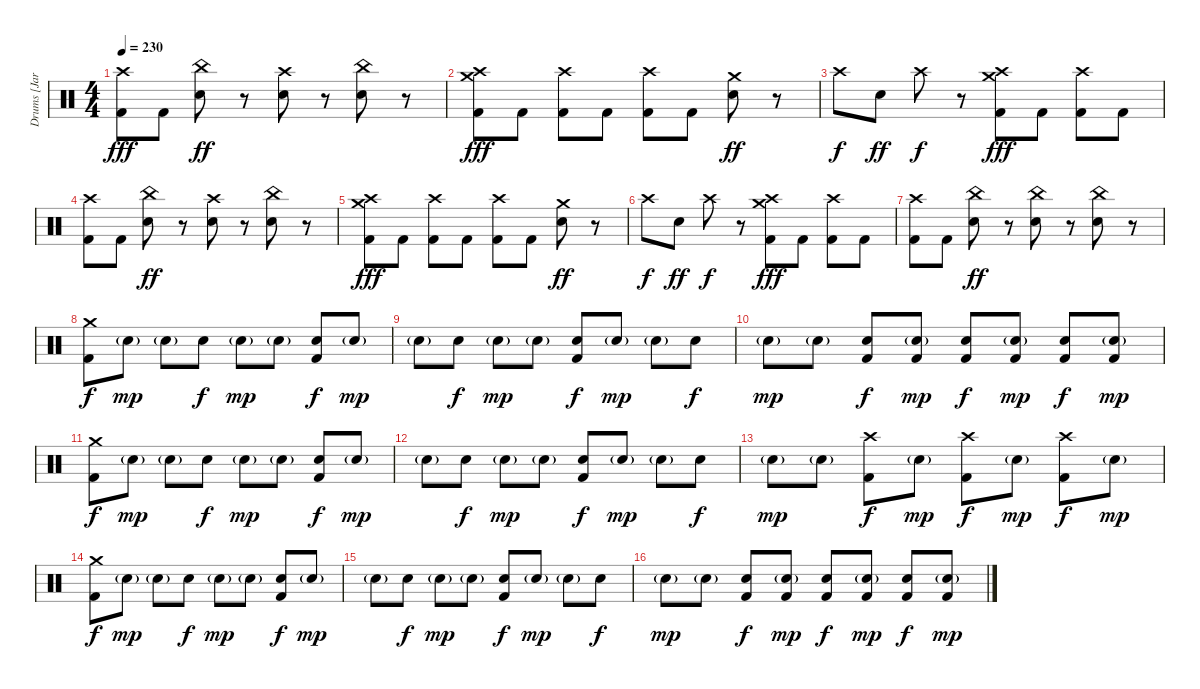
\track ("Drums [Jared]" "Drums [Jar") {instrument percussion}
\staff {score}
\articulation defaults
\ts (4 4)
\tempo 230
\clef neutral
\ks c
("Crash high (hit)" "Kick (hit) 2").8{dy fff} "Kick (hit) 2".8 ("China (hit)" "Electric Snare (hit)").8{dy ff} r.8 ("Crash high (hit)" "Electric Snare (hit)").8 r.8 ("China (hit)" "Electric Snare (hit)").8 r.8 |
("Crash medium (hit)" "Crash high (hit)" "Kick (hit) 2").8{dy fff} "Kick (hit) 2".8 ("Crash high (hit)" "Kick (hit) 2").8 "Kick (hit) 2".8 ("Crash high (hit)" "Kick (hit) 2").8 "Kick (hit) 2".8 ("Crash medium (hit)" "Electric Snare (hit)").8{dy ff} r.8 |
"Crash high (hit)".8{dy f} "Electric Snare (hit)".8{dy ff} "Crash high (hit)".8{dy f} r.8 ("Crash medium (hit)" "Crash high (hit)" "Kick (hit) 2").8{dy fff} "Kick (hit) 2".8 ("Crash high (hit)" "Kick (hit) 2").8 "Kick (hit) 2".8 |
("Crash high (hit)" "Kick (hit) 2").8 "Kick (hit) 2".8 ("China (hit)" "Electric Snare (hit)").8{dy ff} r.8 ("Crash high (hit)" "Electric Snare (hit)").8 r.8 ("China (hit)" "Electric Snare (hit)").8 r.8 |
("Crash medium (hit)" "Crash high (hit)" "Kick (hit) 2").8{dy fff} "Kick (hit) 2".8 ("Crash high (hit)" "Kick (hit) 2").8 "Kick (hit) 2".8 ("Crash high (hit)" "Kick (hit) 2").8 "Kick (hit) 2".8 ("Crash medium (hit)" "Electric Snare (hit)").8{dy ff} r.8 |
"Crash high (hit)".8{dy f} "Electric Snare (hit)".8{dy ff} "Crash high (hit)".8{dy f} r.8 ("Crash medium (hit)" "Crash high (hit)" "Kick (hit) 2").8{dy fff} "Kick (hit) 2".8 ("Crash high (hit)" "Kick (hit) 2").8 "Kick (hit) 2".8 |
("Crash high (hit)" "Kick (hit) 2").8 "Kick (hit) 2".8 ("China (hit)" "Electric Snare (hit)").8{dy ff} r.8 ("China (hit)" "Electric Snare (hit)").8 r.8 ("China (hit)" "Electric Snare (hit)").8 r.8 |
("Crash medium (hit)" "Kick (hit) 2").8{dy f} "Electric Snare (hit)"{g}.8{dy mp} "Electric Snare (hit)"{g}.8 "Electric Snare (hit)".8{dy f} "Electric Snare (hit)"{g}.8{dy mp} "Electric Snare (hit)"{g}.8 ("Electric Snare (hit)" "Kick (hit) 2").8{dy f} "Electric Snare (hit)"{g}.8{dy mp} |
"Electric Snare (hit)"{g}.8 "Electric Snare (hit)".8{dy f} "Electric Snare (hit)"{g}.8{dy mp} "Electric Snare (hit)"{g}.8 ("Electric Snare (hit)" "Kick (hit) 2").8{dy f} "Electric Snare (hit)"{g}.8{dy mp} "Electric Snare (hit)"{g}.8 "Electric Snare (hit)".8{dy f} |
"Electric Snare (hit)"{g}.8{dy mp} "Electric Snare (hit)"{g}.8 ("Electric Snare (hit)" "Kick (hit) 2").8{dy f} ("Electric Snare (hit)"{g} "Kick (hit) 2").8{dy mp} ("Electric Snare (hit)" "Kick (hit) 2").8{dy f} ("Electric Snare (hit)"{g} "Kick (hit) 2").8{dy mp} ("Electric Snare (hit)" "Kick (hit) 2").8{dy f} ("Electric Snare (hit)"{g} "Kick (hit) 2").8{dy mp} |
("Crash medium (hit)" "Kick (hit) 2").8{dy f} "Electric Snare (hit)"{g}.8{dy mp} "Electric Snare (hit)"{g}.8 "Electric Snare (hit)".8{dy f} "Electric Snare (hit)"{g}.8{dy mp} "Electric Snare (hit)"{g}.8 ("Electric Snare (hit)" "Kick (hit) 2").8{dy f} "Electric Snare (hit)"{g}.8{dy mp} |
"Electric Snare (hit)"{g}.8 "Electric Snare (hit)".8{dy f} "Electric Snare (hit)"{g}.8{dy mp} "Electric Snare (hit)"{g}.8 ("Electric Snare (hit)" "Kick (hit) 2").8{dy f} "Electric Snare (hit)"{g}.8{dy mp} "Electric Snare (hit)"{g}.8 "Electric Snare (hit)".8{dy f} |
"Electric Snare (hit)"{g}.8{dy mp} "Electric Snare (hit)"{g}.8 ("Crash high (hit)" "Kick (hit) 2").8{dy f} "Electric Snare (hit)"{g}.8{dy mp} ("Crash high (hit)" "Kick (hit) 2").8{dy f} "Electric Snare (hit)"{g}.8{dy mp} ("Crash high (hit)" "Kick (hit) 2").8{dy f} "Electric Snare (hit)"{g}.8{dy mp} |
("Crash medium (hit)" "Kick (hit) 2").8{dy f} "Electric Snare (hit)"{g}.8{dy mp} "Electric Snare (hit)"{g}.8 "Electric Snare (hit)".8{dy f} "Electric Snare (hit)"{g}.8{dy mp} "Electric Snare (hit)"{g}.8 ("Electric Snare (hit)" "Kick (hit) 2").8{dy f} "Electric Snare (hit)"{g}.8{dy mp} |
"Electric Snare (hit)"{g}.8 "Electric Snare (hit)".8{dy f} "Electric Snare (hit)"{g}.8{dy mp} "Electric Snare (hit)"{g}.8 ("Electric Snare (hit)" "Kick (hit) 2").8{dy f} "Electric Snare (hit)"{g}.8{dy mp} "Electric Snare (hit)"{g}.8 "Electric Snare (hit)".8{dy f} |
"Electric Snare (hit)"{g}.8{dy mp} "Electric Snare (hit)"{g}.8 ("Electric Snare (hit)" "Kick (hit) 2").8{dy f} ("Electric Snare (hit)"{g} "Kick (hit) 2").8{dy mp} ("Electric Snare (hit)" "Kick (hit) 2").8{dy f} ("Electric Snare (hit)"{g} "Kick (hit) 2").8{dy mp} ("Electric Snare (hit)" "Kick (hit) 2").8{dy f} ("Electric Snare (hit)"{g} "Kick (hit) 2").8{dy mp}
